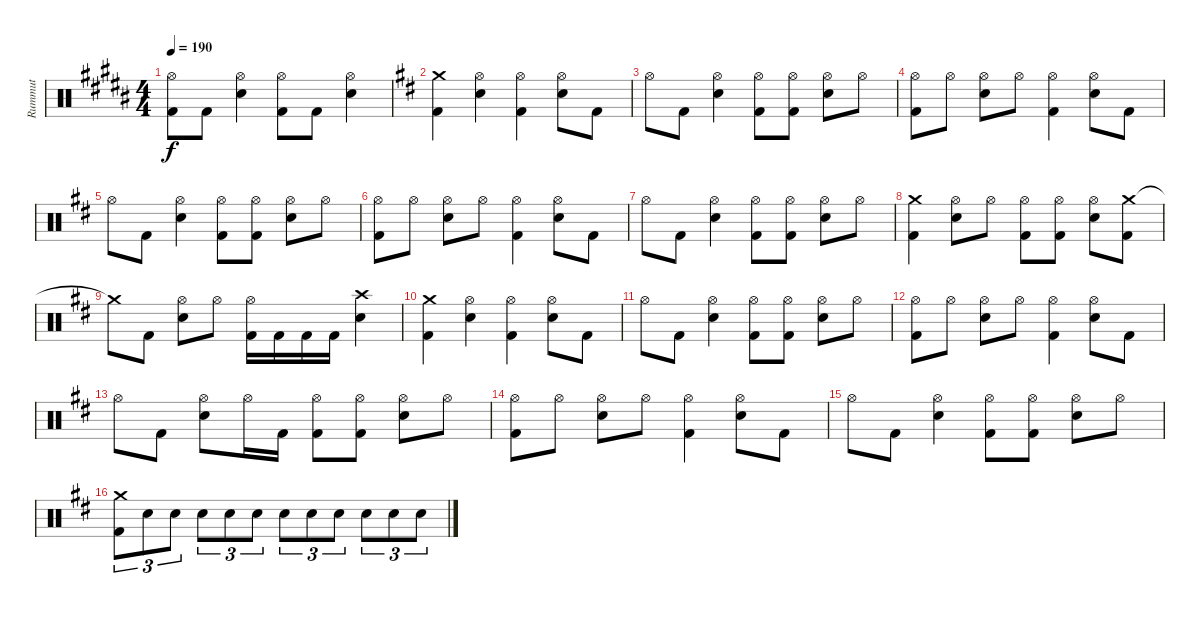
\track ("Rummut" "Rummut") {instrument percussion}
\staff {score}
\articulation defaults
\ts (4 4)
\tempo 190
\clef neutral
\ks b
("Hi-Hat (open)" "Kick (hit) 2").8{dy f} "Kick (hit) 2".8 ("Hi-Hat (open)" "Snare (hit) 2").4 ("Hi-Hat (open)" "Kick (hit) 2").8 "Kick (hit) 2".8 ("Hi-Hat (open)" "Snare (hit) 2").4 |
\ks d
("Crash medium (hit)" "Kick (hit) 2").4 ("Hi-Hat (open)" "Snare (hit) 2").4 ("Hi-Hat (open)" "Kick (hit) 2").4 ("Hi-Hat (open)" "Snare (hit) 2").8 "Kick (hit) 2".8 |
"Hi-Hat (open)".8 "Kick (hit) 2".8 ("Hi-Hat (open)" "Snare (hit) 2").4 ("Hi-Hat (open)" "Kick (hit) 2").8 ("Hi-Hat (open)" "Kick (hit) 2").8 ("Hi-Hat (open)" "Snare (hit) 2").8 "Hi-Hat (open)".8 |
("Hi-Hat (open)" "Kick (hit) 2").8 "Hi-Hat (open)".8 ("Hi-Hat (open)" "Snare (hit) 2").8 "Hi-Hat (open)".8 ("Hi-Hat (open)" "Kick (hit) 2").4 ("Hi-Hat (open)" "Snare (hit) 2").8 "Kick (hit) 2".8 |
"Hi-Hat (open)".8 "Kick (hit) 2".8 ("Hi-Hat (open)" "Snare (hit) 2").4 ("Hi-Hat (open)" "Kick (hit) 2").8 ("Hi-Hat (open)" "Kick (hit) 2").8 ("Hi-Hat (open)" "Snare (hit) 2").8 "Hi-Hat (open)".8 |
("Hi-Hat (open)" "Kick (hit) 2").8 "Hi-Hat (open)".8 ("Hi-Hat (open)" "Snare (hit) 2").8 "Hi-Hat (open)".8 ("Hi-Hat (open)" "Kick (hit) 2").4 ("Hi-Hat (open)" "Snare (hit) 2").8 "Kick (hit) 2".8 |
"Hi-Hat (open)".8 "Kick (hit) 2".8 ("Hi-Hat (open)" "Snare (hit) 2").4 ("Hi-Hat (open)" "Kick (hit) 2").8 ("Hi-Hat (open)" "Kick (hit) 2").8 ("Hi-Hat (open)" "Snare (hit) 2").8 "Hi-Hat (open)".8 |
("Crash medium (hit)" "Kick (hit) 2").4 ("Hi-Hat (open)" "Snare (hit) 2").8 "Hi-Hat (open)".8 ("Hi-Hat (open)" "Kick (hit) 2").8 ("Hi-Hat (open)" "Kick (hit) 2").8 ("Hi-Hat (open)" "Snare (hit) 2").8 ("Crash medium (hit)" "Kick (hit) 2").8 |
"Crash medium (hit)"{t}.8 "Kick (hit) 2".8 ("Hi-Hat (open)" "Snare (hit) 2").8 "Hi-Hat (open)".8 ("Hi-Hat (open)" "Kick (hit) 2").16 "Kick (hit) 2".16 "Kick (hit) 2".16 "Kick (hit) 2".16 ("Crash high (hit)" "Snare (hit) 2").4 |
("Crash medium (hit)" "Kick (hit) 2").4 ("Hi-Hat (open)" "Snare (hit) 2").4 ("Hi-Hat (open)" "Kick (hit) 2").4 ("Hi-Hat (open)" "Snare (hit) 2").8 "Kick (hit) 2".8 |
"Hi-Hat (open)".8 "Kick (hit) 2".8 ("Hi-Hat (open)" "Snare (hit) 2").4 ("Hi-Hat (open)" "Kick (hit) 2").8 ("Hi-Hat (open)" "Kick (hit) 2").8 ("Hi-Hat (open)" "Snare (hit) 2").8 "Hi-Hat (open)".8 |
("Hi-Hat (open)" "Kick (hit) 2").8 "Hi-Hat (open)".8 ("Hi-Hat (open)" "Snare (hit) 2").8 "Hi-Hat (open)".8 ("Hi-Hat (open)" "Kick (hit) 2").4 ("Hi-Hat (open)" "Snare (hit) 2").8 "Kick (hit) 2".8 |
"Hi-Hat (open)".8 "Kick (hit) 2".8 ("Hi-Hat (open)" "Snare (hit) 2").8 "Hi-Hat (open)".16 "Kick (hit) 2".16 ("Hi-Hat (open)" "Kick (hit) 2").8 ("Hi-Hat (open)" "Kick (hit) 2").8 ("Hi-Hat (open)" "Snare (hit) 2").8 "Hi-Hat (open)".8 |
("Hi-Hat (open)" "Kick (hit) 2").8 "Hi-Hat (open)".8 ("Hi-Hat (open)" "Snare (hit) 2").8 "Hi-Hat (open)".8 ("Hi-Hat (open)" "Kick (hit) 2").4 ("Hi-Hat (open)" "Snare (hit) 2").8 "Kick (hit) 2".8 |
"Hi-Hat (open)".8 "Kick (hit) 2".8 ("Hi-Hat (open)" "Snare (hit) 2").4 ("Hi-Hat (open)" "Kick (hit) 2").8 ("Hi-Hat (open)" "Kick (hit) 2").8 ("Hi-Hat (open)" "Snare (hit) 2").8 "Hi-Hat (open)".8 |
("Crash medium (hit)" "Kick (hit) 2").8{tu (3 2)} "Snare (hit) 2".8{tu (3 2)} "Snare (hit) 2".8{tu (3 2)} "Snare (hit) 2".8{tu (3 2)} "Snare (hit) 2".8{tu (3 2)} "Snare (hit) 2".8{tu (3 2)} "Snare (hit) 2".8{tu (3 2)} "Snare (hit) 2".8{tu (3 2)} "Snare (hit) 2".8{tu (3 2)} "Snare (hit) 2".8{tu (3 2)} "Snare (hit) 2".8{tu (3 2)} "Snare (hit) 2".8{tu (3 2)}
